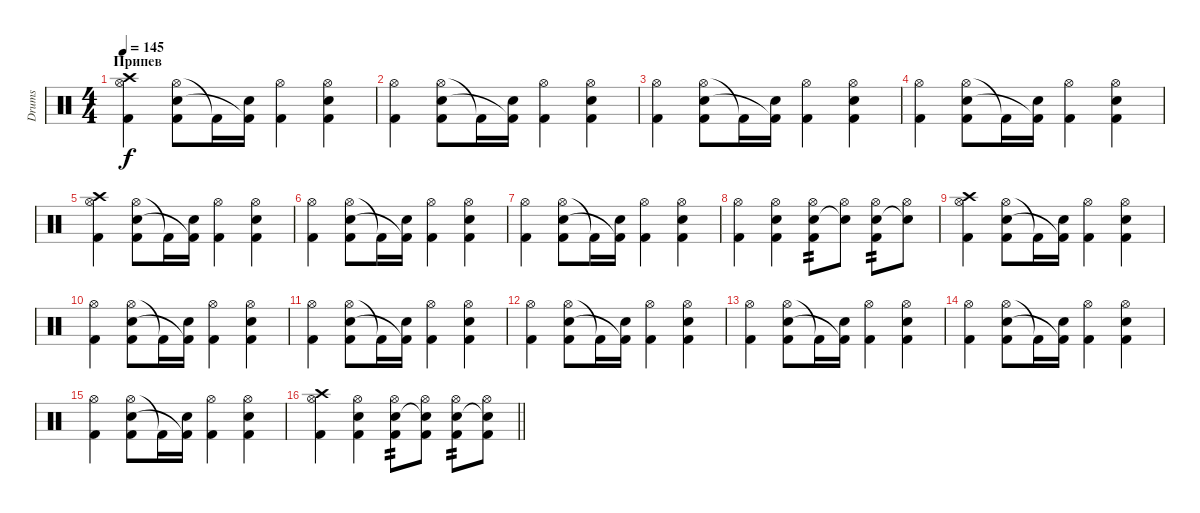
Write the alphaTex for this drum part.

\track ("Drums" "Drums") {instrument percussion}
\staff {score}
\articulation defaults
\ts (4 4)
\section ("" "Припев")
\tempo 145
\clef neutral
\ks c
("Crash high (hit)" "Hi-Hat (open)" "Kick (hit) 2").4{dy f} ("Hi-Hat (open)" "Electric Snare (hit)" "Kick (hit) 2").8 "Kick (hit) 2"{t}.16 ("Electric Snare (hit)" "Kick (hit) 2"{t}).16 ("Hi-Hat (open)" "Kick (hit) 2").4 ("Hi-Hat (open)" "Electric Snare (hit)" "Kick (hit) 2").4 |
("Hi-Hat (open)" "Kick (hit) 2").4 ("Hi-Hat (open)" "Electric Snare (hit)" "Kick (hit) 2").8 "Kick (hit) 2"{t}.16 ("Electric Snare (hit)" "Kick (hit) 2"{t}).16 ("Hi-Hat (open)" "Kick (hit) 2").4 ("Hi-Hat (open)" "Electric Snare (hit)" "Kick (hit) 2").4 |
("Hi-Hat (open)" "Kick (hit) 2").4 ("Hi-Hat (open)" "Electric Snare (hit)" "Kick (hit) 2").8 "Kick (hit) 2"{t}.16 ("Electric Snare (hit)" "Kick (hit) 2"{t}).16 ("Hi-Hat (open)" "Kick (hit) 2").4 ("Hi-Hat (open)" "Electric Snare (hit)" "Kick (hit) 2").4 |
("Hi-Hat (open)" "Kick (hit) 2").4 ("Hi-Hat (open)" "Electric Snare (hit)" "Kick (hit) 2").8 "Kick (hit) 2"{t}.16 ("Electric Snare (hit)" "Kick (hit) 2"{t}).16 ("Hi-Hat (open)" "Kick (hit) 2").4 ("Hi-Hat (open)" "Electric Snare (hit)" "Kick (hit) 2").4 |
("Crash high (hit)" "Hi-Hat (open)" "Kick (hit) 2").4 ("Hi-Hat (open)" "Electric Snare (hit)" "Kick (hit) 2").8 "Kick (hit) 2"{t}.16 ("Electric Snare (hit)" "Kick (hit) 2"{t}).16 ("Hi-Hat (open)" "Kick (hit) 2").4 ("Hi-Hat (open)" "Electric Snare (hit)" "Kick (hit) 2").4 |
("Hi-Hat (open)" "Kick (hit) 2").4 ("Hi-Hat (open)" "Electric Snare (hit)" "Kick (hit) 2").8 "Kick (hit) 2"{t}.16 ("Electric Snare (hit)" "Kick (hit) 2"{t}).16 ("Hi-Hat (open)" "Kick (hit) 2").4 ("Hi-Hat (open)" "Electric Snare (hit)" "Kick (hit) 2").4 |
("Hi-Hat (open)" "Kick (hit) 2").4 ("Hi-Hat (open)" "Electric Snare (hit)" "Kick (hit) 2").8 "Kick (hit) 2"{t}.16 ("Electric Snare (hit)" "Kick (hit) 2"{t}).16 ("Hi-Hat (open)" "Kick (hit) 2").4 ("Hi-Hat (open)" "Electric Snare (hit)" "Kick (hit) 2").4 |
("Hi-Hat (open)" "Kick (hit) 2").4 ("Hi-Hat (open)" "Electric Snare (hit)" "Kick (hit) 2").4 ("Hi-Hat (open)" "Electric Snare (hit)" "Kick (hit) 2").8{tp 2} ("Hi-Hat (open)" "Electric Snare (hit)"{t}).8 ("Hi-Hat (open)" "Electric Snare (hit)" "Kick (hit) 2").8{tp 2} ("Hi-Hat (open)" "Electric Snare (hit)"{t}).8 |
("Crash high (hit)" "Hi-Hat (open)" "Kick (hit) 2").4 ("Hi-Hat (open)" "Electric Snare (hit)" "Kick (hit) 2").8 "Kick (hit) 2"{t}.16 ("Electric Snare (hit)" "Kick (hit) 2"{t}).16 ("Hi-Hat (open)" "Kick (hit) 2").4 ("Hi-Hat (open)" "Electric Snare (hit)" "Kick (hit) 2").4 |
("Hi-Hat (open)" "Kick (hit) 2").4 ("Hi-Hat (open)" "Electric Snare (hit)" "Kick (hit) 2").8 "Kick (hit) 2"{t}.16 ("Electric Snare (hit)" "Kick (hit) 2"{t}).16 ("Hi-Hat (open)" "Kick (hit) 2").4 ("Hi-Hat (open)" "Electric Snare (hit)" "Kick (hit) 2").4 |
("Hi-Hat (open)" "Kick (hit) 2").4 ("Hi-Hat (open)" "Electric Snare (hit)" "Kick (hit) 2").8 "Kick (hit) 2"{t}.16 ("Electric Snare (hit)" "Kick (hit) 2"{t}).16 ("Hi-Hat (open)" "Kick (hit) 2").4 ("Hi-Hat (open)" "Electric Snare (hit)" "Kick (hit) 2").4 |
("Hi-Hat (open)" "Kick (hit) 2").4 ("Hi-Hat (open)" "Electric Snare (hit)" "Kick (hit) 2").8 "Kick (hit) 2"{t}.16 ("Electric Snare (hit)" "Kick (hit) 2"{t}).16 ("Hi-Hat (open)" "Kick (hit) 2").4 ("Hi-Hat (open)" "Electric Snare (hit)" "Kick (hit) 2").4 |
("Hi-Hat (open)" "Kick (hit) 2").4 ("Hi-Hat (open)" "Electric Snare (hit)" "Kick (hit) 2").8 "Kick (hit) 2"{t}.16 ("Electric Snare (hit)" "Kick (hit) 2"{t}).16 ("Hi-Hat (open)" "Kick (hit) 2").4 ("Hi-Hat (open)" "Electric Snare (hit)" "Kick (hit) 2").4 |
("Hi-Hat (open)" "Kick (hit) 2").4 ("Hi-Hat (open)" "Electric Snare (hit)" "Kick (hit) 2").8 "Kick (hit) 2"{t}.16 ("Electric Snare (hit)" "Kick (hit) 2"{t}).16 ("Hi-Hat (open)" "Kick (hit) 2").4 ("Hi-Hat (open)" "Electric Snare (hit)" "Kick (hit) 2").4 |
("Hi-Hat (open)" "Kick (hit) 2").4 ("Hi-Hat (open)" "Electric Snare (hit)" "Kick (hit) 2").8 "Kick (hit) 2"{t}.16 ("Electric Snare (hit)" "Kick (hit) 2"{t}).16 ("Hi-Hat (open)" "Kick (hit) 2").4 ("Hi-Hat (open)" "Electric Snare (hit)" "Kick (hit) 2").4 |
\barLineRight lightlight
("Crash high (hit)" "Hi-Hat (open)" "Kick (hit) 2").4 ("Hi-Hat (open)" "Electric Snare (hit)" "Kick (hit) 2").4 ("Hi-Hat (open)" "Electric Snare (hit)" "Kick (hit) 2").8{tp 2} ("Hi-Hat (open)" "Electric Snare (hit)"{t} "Kick (hit) 2").8 ("Hi-Hat (open)" "Electric Snare (hit)" "Kick (hit) 2").8{tp 2} ("Hi-Hat (open)" "Electric Snare (hit)"{t} "Kick (hit) 2").8
